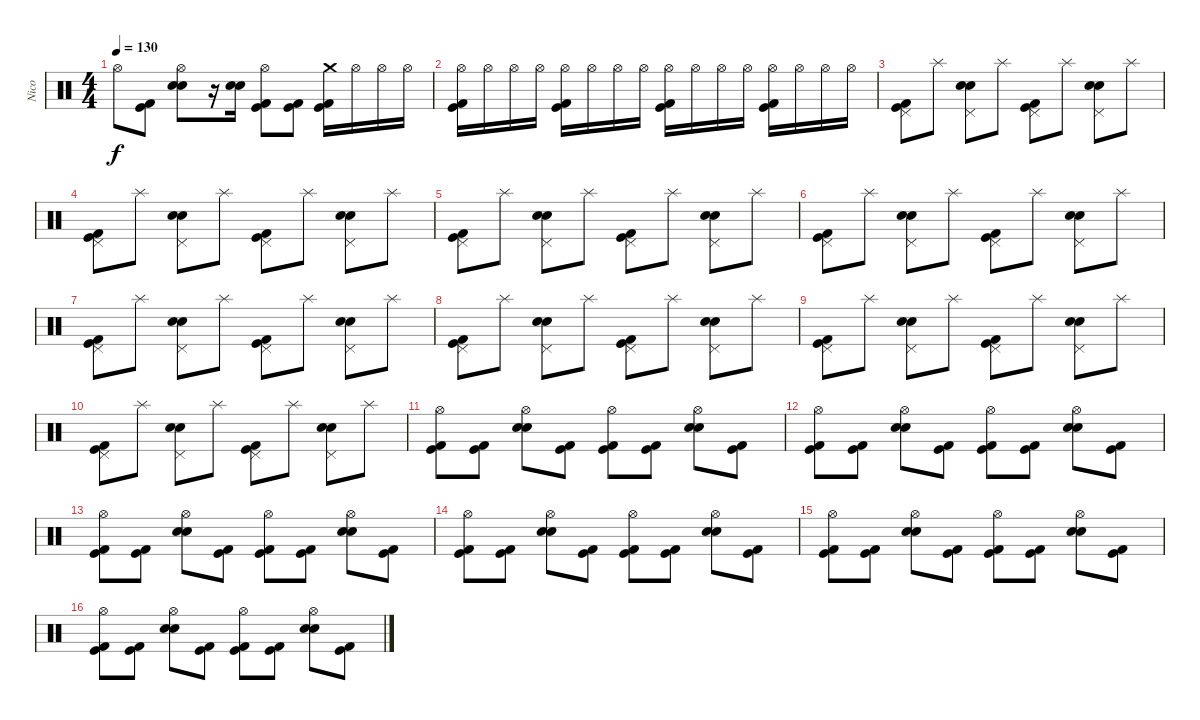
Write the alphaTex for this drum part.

\track ("Nico" "Nico") {instrument percussion}
\staff {score}
\articulation defaults
\ts (4 4)
\tempo 130
\clef neutral
\ks c "Hi-Hat (open)".8{dy f}
("Kick (hit) 2" "Kick (hit)").8 ("Hi-Hat (open)" "Electric Snare (hit)" "Electric Snare (hit)").8 r.16 ("Electric Snare (hit)" "Electric Snare (hit)").16 ("Hi-Hat (open)" "Kick (hit) 2" "Kick (hit)").8 ("Kick (hit) 2" "Kick (hit)").8 ("Crash medium (hit)" "Kick (hit) 2" "Kick (hit)").16 "Hi-Hat (open)".16 "Hi-Hat (open)".16 "Hi-Hat (open)".16 |
("Hi-Hat (open)" "Kick (hit) 2" "Kick (hit)").16 "Hi-Hat (open)".16 "Hi-Hat (open)".16 "Hi-Hat (open)".16 ("Hi-Hat (open)" "Kick (hit) 2" "Kick (hit)").16 "Hi-Hat (open)".16 "Hi-Hat (open)".16 "Hi-Hat (open)".16 ("Hi-Hat (open)" "Kick (hit) 2" "Kick (hit)").16 "Hi-Hat (open)".16 "Hi-Hat (open)".16 "Hi-Hat (open)".16 ("Hi-Hat (open)" "Kick (hit) 2" "Kick (hit)").16 "Hi-Hat (open)".16 "Hi-Hat (open)".16 "Hi-Hat (open)".16 |
("Pedal Hi-Hat (hit)" "Kick (hit) 2" "Kick (hit)").8 "Splash (hit)".8 ("Pedal Hi-Hat (hit)" "Electric Snare (hit)" "Electric Snare (hit)").8 "Splash (hit)".8 ("Pedal Hi-Hat (hit)" "Kick (hit) 2" "Kick (hit)").8 "Splash (hit)".8 ("Pedal Hi-Hat (hit)" "Electric Snare (hit)" "Electric Snare (hit)").8 "Splash (hit)".8 |
("Pedal Hi-Hat (hit)" "Kick (hit) 2" "Kick (hit)").8 "Splash (hit)".8 ("Pedal Hi-Hat (hit)" "Electric Snare (hit)" "Electric Snare (hit)").8 "Splash (hit)".8 ("Pedal Hi-Hat (hit)" "Kick (hit) 2" "Kick (hit)").8 "Splash (hit)".8 ("Pedal Hi-Hat (hit)" "Electric Snare (hit)" "Electric Snare (hit)").8 "Splash (hit)".8 |
("Pedal Hi-Hat (hit)" "Kick (hit) 2" "Kick (hit)").8 "Splash (hit)".8 ("Pedal Hi-Hat (hit)" "Electric Snare (hit)" "Electric Snare (hit)").8 "Splash (hit)".8 ("Pedal Hi-Hat (hit)" "Kick (hit) 2" "Kick (hit)").8 "Splash (hit)".8 ("Pedal Hi-Hat (hit)" "Electric Snare (hit)" "Electric Snare (hit)").8 "Splash (hit)".8 |
("Pedal Hi-Hat (hit)" "Kick (hit) 2" "Kick (hit)").8 "Splash (hit)".8 ("Pedal Hi-Hat (hit)" "Electric Snare (hit)" "Electric Snare (hit)").8 "Splash (hit)".8 ("Pedal Hi-Hat (hit)" "Kick (hit) 2" "Kick (hit)").8 "Splash (hit)".8 ("Pedal Hi-Hat (hit)" "Electric Snare (hit)" "Electric Snare (hit)").8 "Splash (hit)".8 |
("Pedal Hi-Hat (hit)" "Kick (hit) 2" "Kick (hit)").8 "Splash (hit)".8 ("Pedal Hi-Hat (hit)" "Electric Snare (hit)" "Electric Snare (hit)").8 "Splash (hit)".8 ("Pedal Hi-Hat (hit)" "Kick (hit) 2" "Kick (hit)").8 "Splash (hit)".8 ("Pedal Hi-Hat (hit)" "Electric Snare (hit)" "Electric Snare (hit)").8 "Splash (hit)".8 |
("Pedal Hi-Hat (hit)" "Kick (hit) 2" "Kick (hit)").8 "Splash (hit)".8 ("Pedal Hi-Hat (hit)" "Electric Snare (hit)" "Electric Snare (hit)").8 "Splash (hit)".8 ("Pedal Hi-Hat (hit)" "Kick (hit) 2" "Kick (hit)").8 "Splash (hit)".8 ("Pedal Hi-Hat (hit)" "Electric Snare (hit)" "Electric Snare (hit)").8 "Splash (hit)".8 |
("Pedal Hi-Hat (hit)" "Kick (hit) 2" "Kick (hit)").8 "Splash (hit)".8 ("Pedal Hi-Hat (hit)" "Electric Snare (hit)" "Electric Snare (hit)").8 "Splash (hit)".8 ("Pedal Hi-Hat (hit)" "Kick (hit) 2" "Kick (hit)").8 "Splash (hit)".8 ("Pedal Hi-Hat (hit)" "Electric Snare (hit)" "Electric Snare (hit)").8 "Splash (hit)".8 |
("Pedal Hi-Hat (hit)" "Kick (hit) 2" "Kick (hit)").8 "Splash (hit)".8 ("Pedal Hi-Hat (hit)" "Electric Snare (hit)" "Electric Snare (hit)").8 "Splash (hit)".8 ("Pedal Hi-Hat (hit)" "Kick (hit) 2" "Kick (hit)").8 "Splash (hit)".8 ("Pedal Hi-Hat (hit)" "Electric Snare (hit)" "Electric Snare (hit)").8 "Splash (hit)".8 |
("Hi-Hat (open)" "Kick (hit) 2" "Kick (hit)").8 ("Kick (hit) 2" "Kick (hit)").8 ("Hi-Hat (open)" "Electric Snare (hit)" "Electric Snare (hit)").8 ("Kick (hit)" "Kick (hit) 2").8 ("Hi-Hat (open)" "Kick (hit) 2" "Kick (hit)").8 ("Kick (hit) 2" "Kick (hit)").8 ("Hi-Hat (open)" "Electric Snare (hit)" "Electric Snare (hit)").8 ("Kick (hit)" "Kick (hit) 2").8 |
("Hi-Hat (open)" "Kick (hit) 2" "Kick (hit)").8 ("Kick (hit) 2" "Kick (hit)").8 ("Hi-Hat (open)" "Electric Snare (hit)" "Electric Snare (hit)").8 ("Kick (hit)" "Kick (hit) 2").8 ("Hi-Hat (open)" "Kick (hit) 2" "Kick (hit)").8 ("Kick (hit) 2" "Kick (hit)").8 ("Hi-Hat (open)" "Electric Snare (hit)" "Electric Snare (hit)").8 ("Kick (hit)" "Kick (hit) 2").8 |
("Hi-Hat (open)" "Kick (hit) 2" "Kick (hit)").8 ("Kick (hit) 2" "Kick (hit)").8 ("Hi-Hat (open)" "Electric Snare (hit)" "Electric Snare (hit)").8 ("Kick (hit)" "Kick (hit) 2").8 ("Hi-Hat (open)" "Kick (hit) 2" "Kick (hit)").8 ("Kick (hit) 2" "Kick (hit)").8 ("Hi-Hat (open)" "Electric Snare (hit)" "Electric Snare (hit)").8 ("Kick (hit)" "Kick (hit) 2").8 |
("Hi-Hat (open)" "Kick (hit) 2" "Kick (hit)").8 ("Kick (hit) 2" "Kick (hit)").8 ("Hi-Hat (open)" "Electric Snare (hit)" "Electric Snare (hit)").8 ("Kick (hit)" "Kick (hit) 2").8 ("Hi-Hat (open)" "Kick (hit) 2" "Kick (hit)").8 ("Kick (hit) 2" "Kick (hit)").8 ("Hi-Hat (open)" "Electric Snare (hit)" "Electric Snare (hit)").8 ("Kick (hit)" "Kick (hit) 2").8 |
("Hi-Hat (open)" "Kick (hit) 2" "Kick (hit)").8 ("Kick (hit) 2" "Kick (hit)").8 ("Hi-Hat (open)" "Electric Snare (hit)" "Electric Snare (hit)").8 ("Kick (hit)" "Kick (hit) 2").8 ("Hi-Hat (open)" "Kick (hit) 2" "Kick (hit)").8 ("Kick (hit) 2" "Kick (hit)").8 ("Hi-Hat (open)" "Electric Snare (hit)" "Electric Snare (hit)").8 ("Kick (hit)" "Kick (hit) 2").8 |
("Hi-Hat (open)" "Kick (hit) 2" "Kick (hit)").8 ("Kick (hit) 2" "Kick (hit)").8 ("Hi-Hat (open)" "Electric Snare (hit)" "Electric Snare (hit)").8 ("Kick (hit)" "Kick (hit) 2").8 ("Hi-Hat (open)" "Kick (hit) 2" "Kick (hit)").8 ("Kick (hit) 2" "Kick (hit)").8 ("Hi-Hat (open)" "Electric Snare (hit)" "Electric Snare (hit)").8 ("Kick (hit)" "Kick (hit) 2").8
